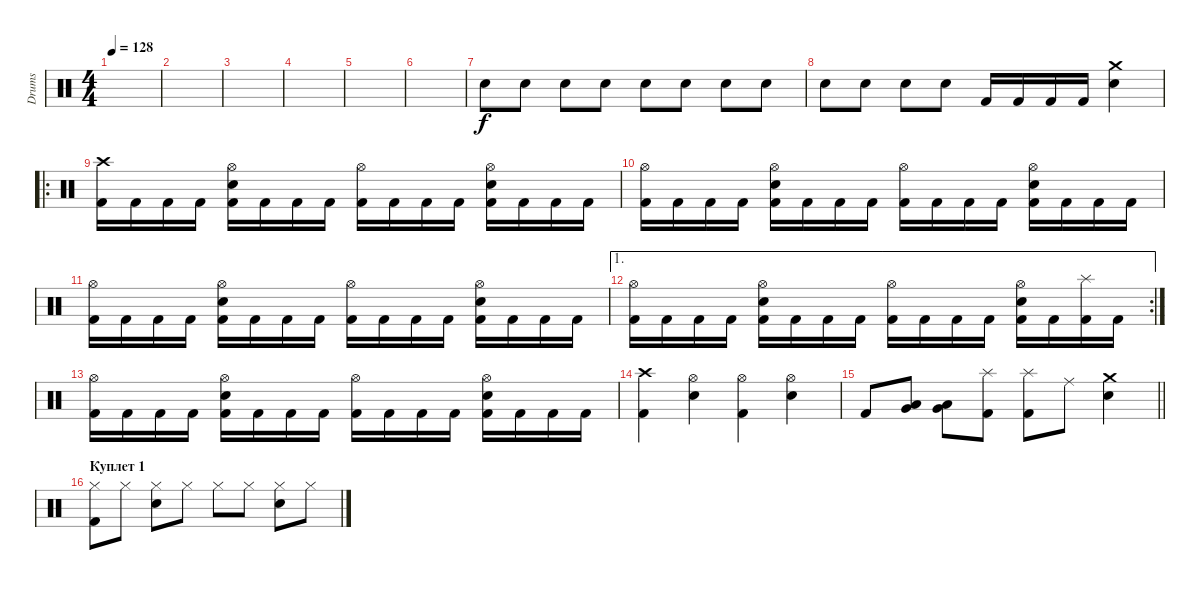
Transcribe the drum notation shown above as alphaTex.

\track ("Drums" "Drums") {instrument percussion}
\staff {score}
\articulation defaults
\ts (4 4)
\tempo 128
\clef neutral
\ks c
|
|
|
|
|
|
"Electric Snare (hit)".8{volume 1} "Electric Snare (hit)".8{volume 2} "Electric Snare (hit)".8{volume 3} "Electric Snare (hit)".8{volume 4} "Electric Snare (hit)".8{volume 5} "Electric Snare (hit)".8{volume 6} "Electric Snare (hit)".8{volume 7} "Electric Snare (hit)".8{volume 8} |
"Electric Snare (hit)".8{volume 9} "Electric Snare (hit)".8{volume 10} "Electric Snare (hit)".8{volume 11} "Electric Snare (hit)".8{volume 12} "Kick (hit) 2".16{volume 14} "Kick (hit) 2".16 "Kick (hit) 2".16 "Kick (hit) 2".16 ("Electric Snare (hit)" "Crash medium (hit)").4 |
\ro
("Kick (hit) 2" "Crash high (hit)").16 "Kick (hit) 2".16 "Kick (hit) 2".16 "Kick (hit) 2".16 ("Kick (hit) 2" "Electric Snare (hit)" "Hi-Hat (open)").16 "Kick (hit) 2".16 "Kick (hit) 2".16 "Kick (hit) 2".16 ("Kick (hit) 2" "Hi-Hat (open)").16 "Kick (hit) 2".16 "Kick (hit) 2".16 "Kick (hit) 2".16 ("Kick (hit) 2" "Electric Snare (hit)" "Hi-Hat (open)").16 "Kick (hit) 2".16 "Kick (hit) 2".16 "Kick (hit) 2".16 |
("Kick (hit) 2" "Hi-Hat (open)").16 "Kick (hit) 2".16 "Kick (hit) 2".16 "Kick (hit) 2".16 ("Kick (hit) 2" "Electric Snare (hit)" "Hi-Hat (open)").16 "Kick (hit) 2".16 "Kick (hit) 2".16 "Kick (hit) 2".16 ("Kick (hit) 2" "Hi-Hat (open)").16 "Kick (hit) 2".16 "Kick (hit) 2".16 "Kick (hit) 2".16 ("Kick (hit) 2" "Electric Snare (hit)" "Hi-Hat (open)").16 "Kick (hit) 2".16 "Kick (hit) 2".16 "Kick (hit) 2".16 |
("Kick (hit) 2" "Hi-Hat (open)").16 "Kick (hit) 2".16 "Kick (hit) 2".16 "Kick (hit) 2".16 ("Kick (hit) 2" "Electric Snare (hit)" "Hi-Hat (open)").16 "Kick (hit) 2".16 "Kick (hit) 2".16 "Kick (hit) 2".16 ("Kick (hit) 2" "Hi-Hat (open)").16 "Kick (hit) 2".16 "Kick (hit) 2".16 "Kick (hit) 2".16 ("Kick (hit) 2" "Electric Snare (hit)" "Hi-Hat (open)").16 "Kick (hit) 2".16 "Kick (hit) 2".16 "Kick (hit) 2".16 |
\ae 1
\rc 2
("Kick (hit) 2" "Hi-Hat (open)").16 "Kick (hit) 2".16 "Kick (hit) 2".16 "Kick (hit) 2".16 ("Kick (hit) 2" "Electric Snare (hit)" "Hi-Hat (open)").16 "Kick (hit) 2".16 "Kick (hit) 2".16 "Kick (hit) 2".16 ("Kick (hit) 2" "Hi-Hat (open)").16 "Kick (hit) 2".16 "Kick (hit) 2".16 "Kick (hit) 2".16 ("Kick (hit) 2" "Electric Snare (hit)" "Hi-Hat (open)").16 "Kick (hit) 2".16 ("Kick (hit) 2" "Splash (hit)").16 "Kick (hit) 2".16 |
("Kick (hit) 2" "Hi-Hat (open)").16 "Kick (hit) 2".16 "Kick (hit) 2".16 "Kick (hit) 2".16 ("Kick (hit) 2" "Electric Snare (hit)" "Hi-Hat (open)").16 "Kick (hit) 2".16 "Kick (hit) 2".16 "Kick (hit) 2".16 ("Kick (hit) 2" "Hi-Hat (open)").16 "Kick (hit) 2".16 "Kick (hit) 2".16 "Kick (hit) 2".16 ("Kick (hit) 2" "Electric Snare (hit)" "Hi-Hat (open)").16 "Kick (hit) 2".16 "Kick (hit) 2".16 "Kick (hit) 2".16 |
("Kick (hit) 2" "Crash high (hit)").4 ("Electric Snare (hit)" "Hi-Hat (open)").4 ("Kick (hit) 2" "Hi-Hat (open)").4 ("Electric Snare (hit)" "Hi-Hat (open)").4 |
\barLineRight lightlight "Kick (hit) 2".8
("Very Low Tom (hit)" "Low Floor Tom (hit)").8 ("Very Low Tom (hit)" "Low Floor Tom (hit)").8 ("Kick (hit) 2" "Splash (hit)").8 ("Kick (hit) 2" "Splash (hit)").8 "Ride (middle)".8 ("Electric Snare (hit)" "Crash medium (hit)").4 |
\section ("" "Куплет 1")
("Kick (hit) 2" "Hi-Hat (closed)").8 "Hi-Hat (closed)".8 ("Electric Snare (hit)" "Hi-Hat (closed)").8 "Hi-Hat (closed)".8 "Hi-Hat (closed)".8 "Hi-Hat (closed)".8 ("Electric Snare (hit)" "Hi-Hat (closed)").8 "Hi-Hat (closed)".8
